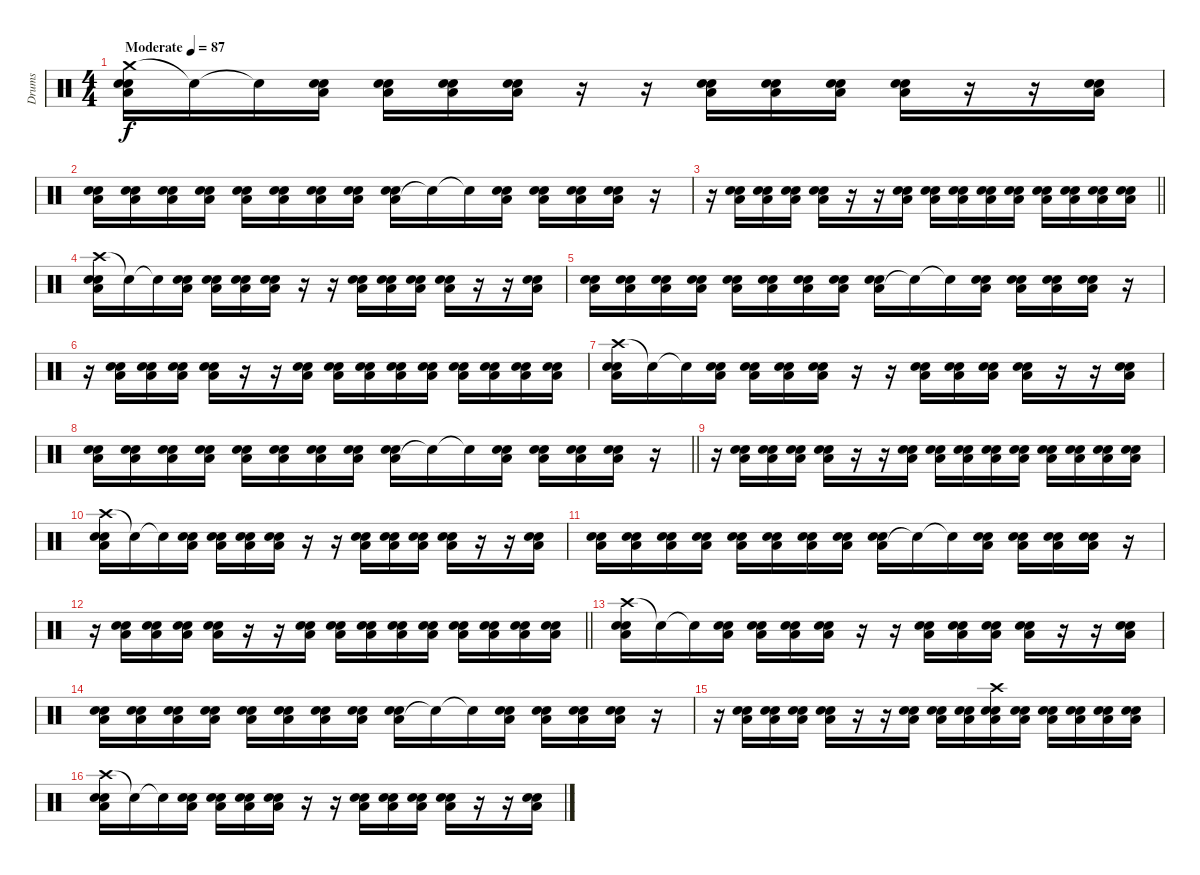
\track ("Drums" "Drums") {instrument percussion}
\staff
\articulation defaults
\ts (4 4)
\tempo (87 "Moderate")
\clef neutral
\ks c
("Crash medium (hit)" "Low Floor Tom (hit)" "Snare (hit) 2" "Electric Snare (hit)").16{dy f volume 9} "Snare (hit)"{t}.16 "Snare (hit)"{t}.16 ("Low Floor Tom (hit)" "Snare (hit) 2" "Electric Snare (hit)").16 ("Low Floor Tom (hit)" "Snare (hit) 2" "Electric Snare (hit)").16 ("Low Floor Tom (hit)" "Snare (hit) 2" "Electric Snare (hit)").16 ("Low Floor Tom (hit)" "Snare (hit) 2" "Electric Snare (hit)").16 r.16 r.16 ("Low Floor Tom (hit)" "Snare (hit) 2" "Electric Snare (hit)").16 ("Low Floor Tom (hit)" "Snare (hit) 2" "Electric Snare (hit)").16 ("Low Floor Tom (hit)" "Snare (hit) 2" "Electric Snare (hit)").16 ("Low Floor Tom (hit)" "Snare (hit) 2" "Electric Snare (hit)").16 r.16 r.16 ("Low Floor Tom (hit)" "Snare (hit) 2" "Electric Snare (hit)").16 |
("Low Floor Tom (hit)" "Snare (hit) 2" "Electric Snare (hit)").16 ("Low Floor Tom (hit)" "Snare (hit) 2" "Electric Snare (hit)").16 ("Low Floor Tom (hit)" "Snare (hit) 2" "Electric Snare (hit)").16 ("Low Floor Tom (hit)" "Snare (hit) 2" "Electric Snare (hit)").16 ("Low Floor Tom (hit)" "Snare (hit) 2" "Electric Snare (hit)").16 ("Low Floor Tom (hit)" "Snare (hit) 2" "Electric Snare (hit)").16 ("Low Floor Tom (hit)" "Snare (hit) 2" "Electric Snare (hit)").16 ("Low Floor Tom (hit)" "Snare (hit) 2" "Electric Snare (hit)").16 ("Low Floor Tom (hit)" "Snare (hit) 2" "Electric Snare (hit)").16 "Snare (hit)"{t}.16 "Snare (hit)"{t}.16 ("Low Floor Tom (hit)" "Snare (hit) 2" "Electric Snare (hit)").16 ("Low Floor Tom (hit)" "Snare (hit) 2" "Electric Snare (hit)").16 ("Low Floor Tom (hit)" "Snare (hit) 2" "Electric Snare (hit)").16 ("Low Floor Tom (hit)" "Snare (hit) 2" "Electric Snare (hit)").16 r.16 |
\barLineRight lightlight
r.16 ("Low Floor Tom (hit)" "Snare (hit) 2" "Electric Snare (hit)").16 ("Low Floor Tom (hit)" "Snare (hit) 2" "Electric Snare (hit)").16 ("Low Floor Tom (hit)" "Snare (hit) 2" "Electric Snare (hit)").16 ("Low Floor Tom (hit)" "Snare (hit) 2" "Electric Snare (hit)").16 r.16 r.16 ("Low Floor Tom (hit)" "Snare (hit) 2" "Electric Snare (hit)").16 ("Low Floor Tom (hit)" "Snare (hit) 2" "Electric Snare (hit)").16 ("Low Floor Tom (hit)" "Snare (hit) 2" "Electric Snare (hit)").16 ("Low Floor Tom (hit)" "Snare (hit) 2" "Electric Snare (hit)").16 ("Low Floor Tom (hit)" "Snare (hit) 2" "Electric Snare (hit)").16 ("Low Floor Tom (hit)" "Snare (hit) 2" "Electric Snare (hit)").16 ("Low Floor Tom (hit)" "Snare (hit) 2" "Electric Snare (hit)").16 ("Low Floor Tom (hit)" "Snare (hit) 2" "Electric Snare (hit)").16 ("Low Floor Tom (hit)" "Snare (hit) 2" "Electric Snare (hit)").16 |
\section ("" "")
("Crash high (hit)" "Low Floor Tom (hit)" "Snare (hit) 2" "Electric Snare (hit)").16{volume 9} "Snare (hit)"{t}.16 "Snare (hit)"{t}.16 ("Low Floor Tom (hit)" "Snare (hit) 2" "Electric Snare (hit)").16 ("Low Floor Tom (hit)" "Snare (hit) 2" "Electric Snare (hit)").16 ("Low Floor Tom (hit)" "Snare (hit) 2" "Electric Snare (hit)").16 ("Low Floor Tom (hit)" "Snare (hit) 2" "Electric Snare (hit)").16 r.16 r.16 ("Low Floor Tom (hit)" "Snare (hit) 2" "Electric Snare (hit)").16 ("Low Floor Tom (hit)" "Snare (hit) 2" "Electric Snare (hit)").16 ("Low Floor Tom (hit)" "Snare (hit) 2" "Electric Snare (hit)").16 ("Low Floor Tom (hit)" "Snare (hit) 2" "Electric Snare (hit)").16 r.16 r.16 ("Low Floor Tom (hit)" "Snare (hit) 2" "Electric Snare (hit)").16 |
("Low Floor Tom (hit)" "Snare (hit) 2" "Electric Snare (hit)").16 ("Low Floor Tom (hit)" "Snare (hit) 2" "Electric Snare (hit)").16 ("Low Floor Tom (hit)" "Snare (hit) 2" "Electric Snare (hit)").16 ("Low Floor Tom (hit)" "Snare (hit) 2" "Electric Snare (hit)").16 ("Low Floor Tom (hit)" "Snare (hit) 2" "Electric Snare (hit)").16 ("Low Floor Tom (hit)" "Snare (hit) 2" "Electric Snare (hit)").16 ("Low Floor Tom (hit)" "Snare (hit) 2" "Electric Snare (hit)").16 ("Low Floor Tom (hit)" "Snare (hit) 2" "Electric Snare (hit)").16 ("Low Floor Tom (hit)" "Snare (hit) 2" "Electric Snare (hit)").16 "Snare (hit)"{t}.16 "Snare (hit)"{t}.16 ("Low Floor Tom (hit)" "Snare (hit) 2" "Electric Snare (hit)").16 ("Low Floor Tom (hit)" "Snare (hit) 2" "Electric Snare (hit)").16 ("Low Floor Tom (hit)" "Snare (hit) 2" "Electric Snare (hit)").16 ("Low Floor Tom (hit)" "Snare (hit) 2" "Electric Snare (hit)").16 r.16 |
r.16 ("Low Floor Tom (hit)" "Snare (hit) 2" "Electric Snare (hit)").16 ("Low Floor Tom (hit)" "Snare (hit) 2" "Electric Snare (hit)").16 ("Low Floor Tom (hit)" "Snare (hit) 2" "Electric Snare (hit)").16 ("Low Floor Tom (hit)" "Snare (hit) 2" "Electric Snare (hit)").16 r.16 r.16 ("Low Floor Tom (hit)" "Snare (hit) 2" "Electric Snare (hit)").16 ("Low Floor Tom (hit)" "Snare (hit) 2" "Electric Snare (hit)").16 ("Low Floor Tom (hit)" "Snare (hit) 2" "Electric Snare (hit)").16 ("Low Floor Tom (hit)" "Snare (hit) 2" "Electric Snare (hit)").16 ("Low Floor Tom (hit)" "Snare (hit) 2" "Electric Snare (hit)").16 ("Low Floor Tom (hit)" "Snare (hit) 2" "Electric Snare (hit)").16 ("Low Floor Tom (hit)" "Snare (hit) 2" "Electric Snare (hit)").16 ("Low Floor Tom (hit)" "Snare (hit) 2" "Electric Snare (hit)").16 ("Low Floor Tom (hit)" "Snare (hit) 2" "Electric Snare (hit)").16 |
("Crash high (hit)" "Low Floor Tom (hit)" "Snare (hit) 2" "Electric Snare (hit)").16 "Snare (hit)"{t}.16 "Snare (hit)"{t}.16 ("Low Floor Tom (hit)" "Snare (hit) 2" "Electric Snare (hit)").16 ("Low Floor Tom (hit)" "Snare (hit) 2" "Electric Snare (hit)").16 ("Low Floor Tom (hit)" "Snare (hit) 2" "Electric Snare (hit)").16 ("Low Floor Tom (hit)" "Snare (hit) 2" "Electric Snare (hit)").16 r.16 r.16 ("Low Floor Tom (hit)" "Snare (hit) 2" "Electric Snare (hit)").16 ("Low Floor Tom (hit)" "Snare (hit) 2" "Electric Snare (hit)").16 ("Low Floor Tom (hit)" "Snare (hit) 2" "Electric Snare (hit)").16 ("Low Floor Tom (hit)" "Snare (hit) 2" "Electric Snare (hit)").16 r.16 r.16 ("Low Floor Tom (hit)" "Snare (hit) 2" "Electric Snare (hit)").16 |
\barLineRight lightlight
("Low Floor Tom (hit)" "Snare (hit) 2" "Electric Snare (hit)").16 ("Low Floor Tom (hit)" "Snare (hit) 2" "Electric Snare (hit)").16 ("Low Floor Tom (hit)" "Snare (hit) 2" "Electric Snare (hit)").16 ("Low Floor Tom (hit)" "Snare (hit) 2" "Electric Snare (hit)").16 ("Low Floor Tom (hit)" "Snare (hit) 2" "Electric Snare (hit)").16 ("Low Floor Tom (hit)" "Snare (hit) 2" "Electric Snare (hit)").16 ("Low Floor Tom (hit)" "Snare (hit) 2" "Electric Snare (hit)").16 ("Low Floor Tom (hit)" "Snare (hit) 2" "Electric Snare (hit)").16 ("Low Floor Tom (hit)" "Snare (hit) 2" "Electric Snare (hit)").16 "Snare (hit)"{t}.16 "Snare (hit)"{t}.16 ("Low Floor Tom (hit)" "Snare (hit) 2" "Electric Snare (hit)").16 ("Low Floor Tom (hit)" "Snare (hit) 2" "Electric Snare (hit)").16 ("Low Floor Tom (hit)" "Snare (hit) 2" "Electric Snare (hit)").16 ("Low Floor Tom (hit)" "Snare (hit) 2" "Electric Snare (hit)").16 r.16 |
r.16 ("Low Floor Tom (hit)" "Snare (hit) 2" "Electric Snare (hit)").16 ("Low Floor Tom (hit)" "Snare (hit) 2" "Electric Snare (hit)").16 ("Low Floor Tom (hit)" "Snare (hit) 2" "Electric Snare (hit)").16 ("Low Floor Tom (hit)" "Snare (hit) 2" "Electric Snare (hit)").16 r.16 r.16 ("Low Floor Tom (hit)" "Snare (hit) 2" "Electric Snare (hit)").16 ("Low Floor Tom (hit)" "Snare (hit) 2" "Electric Snare (hit)").16 ("Low Floor Tom (hit)" "Snare (hit) 2" "Electric Snare (hit)").16 ("Low Floor Tom (hit)" "Snare (hit) 2" "Electric Snare (hit)").16 ("Low Floor Tom (hit)" "Snare (hit) 2" "Electric Snare (hit)").16 ("Low Floor Tom (hit)" "Snare (hit) 2" "Electric Snare (hit)").16 ("Low Floor Tom (hit)" "Snare (hit) 2" "Electric Snare (hit)").16 ("Low Floor Tom (hit)" "Snare (hit) 2" "Electric Snare (hit)").16 ("Low Floor Tom (hit)" "Snare (hit) 2" "Electric Snare (hit)").16 |
("Crash high (hit)" "Low Floor Tom (hit)" "Snare (hit) 2" "Electric Snare (hit)").16 "Snare (hit)"{t}.16 "Snare (hit)"{t}.16 ("Low Floor Tom (hit)" "Snare (hit) 2" "Electric Snare (hit)").16 ("Low Floor Tom (hit)" "Snare (hit) 2" "Electric Snare (hit)").16 ("Low Floor Tom (hit)" "Snare (hit) 2" "Electric Snare (hit)").16 ("Low Floor Tom (hit)" "Snare (hit) 2" "Electric Snare (hit)").16 r.16 r.16 ("Low Floor Tom (hit)" "Snare (hit) 2" "Electric Snare (hit)").16 ("Low Floor Tom (hit)" "Snare (hit) 2" "Electric Snare (hit)").16 ("Low Floor Tom (hit)" "Snare (hit) 2" "Electric Snare (hit)").16 ("Low Floor Tom (hit)" "Snare (hit) 2" "Electric Snare (hit)").16 r.16 r.16 ("Low Floor Tom (hit)" "Snare (hit) 2" "Electric Snare (hit)").16 |
("Low Floor Tom (hit)" "Snare (hit) 2" "Electric Snare (hit)").16 ("Low Floor Tom (hit)" "Snare (hit) 2" "Electric Snare (hit)").16 ("Low Floor Tom (hit)" "Snare (hit) 2" "Electric Snare (hit)").16 ("Low Floor Tom (hit)" "Snare (hit) 2" "Electric Snare (hit)").16 ("Low Floor Tom (hit)" "Snare (hit) 2" "Electric Snare (hit)").16 ("Low Floor Tom (hit)" "Snare (hit) 2" "Electric Snare (hit)").16 ("Low Floor Tom (hit)" "Snare (hit) 2" "Electric Snare (hit)").16 ("Low Floor Tom (hit)" "Snare (hit) 2" "Electric Snare (hit)").16 ("Low Floor Tom (hit)" "Snare (hit) 2" "Electric Snare (hit)").16 "Snare (hit)"{t}.16 "Snare (hit)"{t}.16 ("Low Floor Tom (hit)" "Snare (hit) 2" "Electric Snare (hit)").16 ("Low Floor Tom (hit)" "Snare (hit) 2" "Electric Snare (hit)").16 ("Low Floor Tom (hit)" "Snare (hit) 2" "Electric Snare (hit)").16 ("Low Floor Tom (hit)" "Snare (hit) 2" "Electric Snare (hit)").16 r.16 |
\barLineRight lightlight
r.16 ("Low Floor Tom (hit)" "Snare (hit) 2" "Electric Snare (hit)").16 ("Low Floor Tom (hit)" "Snare (hit) 2" "Electric Snare (hit)").16 ("Low Floor Tom (hit)" "Snare (hit) 2" "Electric Snare (hit)").16 ("Low Floor Tom (hit)" "Snare (hit) 2" "Electric Snare (hit)").16 r.16 r.16 ("Low Floor Tom (hit)" "Snare (hit) 2" "Electric Snare (hit)").16 ("Low Floor Tom (hit)" "Snare (hit) 2" "Electric Snare (hit)").16 ("Low Floor Tom (hit)" "Snare (hit) 2" "Electric Snare (hit)").16 ("Low Floor Tom (hit)" "Snare (hit) 2" "Electric Snare (hit)").16 ("Low Floor Tom (hit)" "Snare (hit) 2" "Electric Snare (hit)").16 ("Low Floor Tom (hit)" "Snare (hit) 2" "Electric Snare (hit)").16 ("Low Floor Tom (hit)" "Snare (hit) 2" "Electric Snare (hit)").16 ("Low Floor Tom (hit)" "Snare (hit) 2" "Electric Snare (hit)").16 ("Low Floor Tom (hit)" "Snare (hit) 2" "Electric Snare (hit)").16 |
\section ("" "")
("Crash high (hit)" "Low Floor Tom (hit)" "Snare (hit) 2" "Electric Snare (hit)").16{volume 9} "Snare (hit)"{t}.16 "Snare (hit)"{t}.16 ("Low Floor Tom (hit)" "Snare (hit) 2" "Electric Snare (hit)").16 ("Low Floor Tom (hit)" "Snare (hit) 2" "Electric Snare (hit)").16 ("Low Floor Tom (hit)" "Snare (hit) 2" "Electric Snare (hit)").16 ("Low Floor Tom (hit)" "Snare (hit) 2" "Electric Snare (hit)").16 r.16 r.16 ("Low Floor Tom (hit)" "Snare (hit) 2" "Electric Snare (hit)").16 ("Low Floor Tom (hit)" "Snare (hit) 2" "Electric Snare (hit)").16 ("Low Floor Tom (hit)" "Snare (hit) 2" "Electric Snare (hit)").16 ("Low Floor Tom (hit)" "Snare (hit) 2" "Electric Snare (hit)").16 r.16 r.16 ("Low Floor Tom (hit)" "Snare (hit) 2" "Electric Snare (hit)").16 |
("Low Floor Tom (hit)" "Snare (hit) 2" "Electric Snare (hit)").16 ("Low Floor Tom (hit)" "Snare (hit) 2" "Electric Snare (hit)").16 ("Low Floor Tom (hit)" "Snare (hit) 2" "Electric Snare (hit)").16 ("Low Floor Tom (hit)" "Snare (hit) 2" "Electric Snare (hit)").16 ("Low Floor Tom (hit)" "Snare (hit) 2" "Electric Snare (hit)").16 ("Low Floor Tom (hit)" "Snare (hit) 2" "Electric Snare (hit)").16 ("Low Floor Tom (hit)" "Snare (hit) 2" "Electric Snare (hit)").16 ("Low Floor Tom (hit)" "Snare (hit) 2" "Electric Snare (hit)").16 ("Low Floor Tom (hit)" "Snare (hit) 2" "Electric Snare (hit)").16 "Snare (hit)"{t}.16 "Snare (hit)"{t}.16 ("Low Floor Tom (hit)" "Snare (hit) 2" "Electric Snare (hit)").16 ("Low Floor Tom (hit)" "Snare (hit) 2" "Electric Snare (hit)").16 ("Low Floor Tom (hit)" "Snare (hit) 2" "Electric Snare (hit)").16 ("Low Floor Tom (hit)" "Snare (hit) 2" "Electric Snare (hit)").16 r.16 |
r.16 ("Low Floor Tom (hit)" "Snare (hit) 2" "Electric Snare (hit)").16 ("Low Floor Tom (hit)" "Snare (hit) 2" "Electric Snare (hit)").16 ("Low Floor Tom (hit)" "Snare (hit) 2" "Electric Snare (hit)").16 ("Low Floor Tom (hit)" "Snare (hit) 2" "Electric Snare (hit)").16 r.16 r.16 ("Low Floor Tom (hit)" "Snare (hit) 2" "Electric Snare (hit)").16 ("Low Floor Tom (hit)" "Snare (hit) 2" "Electric Snare (hit)").16 ("Low Floor Tom (hit)" "Snare (hit) 2" "Electric Snare (hit)").16 ("Crash high (hit)" "Low Floor Tom (hit)" "Snare (hit) 2" "Electric Snare (hit)").16 ("Low Floor Tom (hit)" "Snare (hit) 2" "Electric Snare (hit)").16 ("Low Floor Tom (hit)" "Snare (hit) 2" "Electric Snare (hit)").16 ("Low Floor Tom (hit)" "Snare (hit) 2" "Electric Snare (hit)").16 ("Low Floor Tom (hit)" "Snare (hit) 2" "Electric Snare (hit)").16 ("Low Floor Tom (hit)" "Snare (hit) 2" "Electric Snare (hit)").16 |
("Crash high (hit)" "Low Floor Tom (hit)" "Snare (hit) 2" "Electric Snare (hit)").16 "Snare (hit)"{t}.16 "Snare (hit)"{t}.16 ("Low Floor Tom (hit)" "Snare (hit) 2" "Electric Snare (hit)").16 ("Low Floor Tom (hit)" "Snare (hit) 2" "Electric Snare (hit)").16 ("Low Floor Tom (hit)" "Snare (hit) 2" "Electric Snare (hit)").16 ("Low Floor Tom (hit)" "Snare (hit) 2" "Electric Snare (hit)").16 r.16 r.16 ("Low Floor Tom (hit)" "Snare (hit) 2" "Electric Snare (hit)").16 ("Low Floor Tom (hit)" "Snare (hit) 2" "Electric Snare (hit)").16 ("Low Floor Tom (hit)" "Snare (hit) 2" "Electric Snare (hit)").16 ("Low Floor Tom (hit)" "Snare (hit) 2" "Electric Snare (hit)").16 r.16 r.16 ("Low Floor Tom (hit)" "Snare (hit) 2" "Electric Snare (hit)").16
